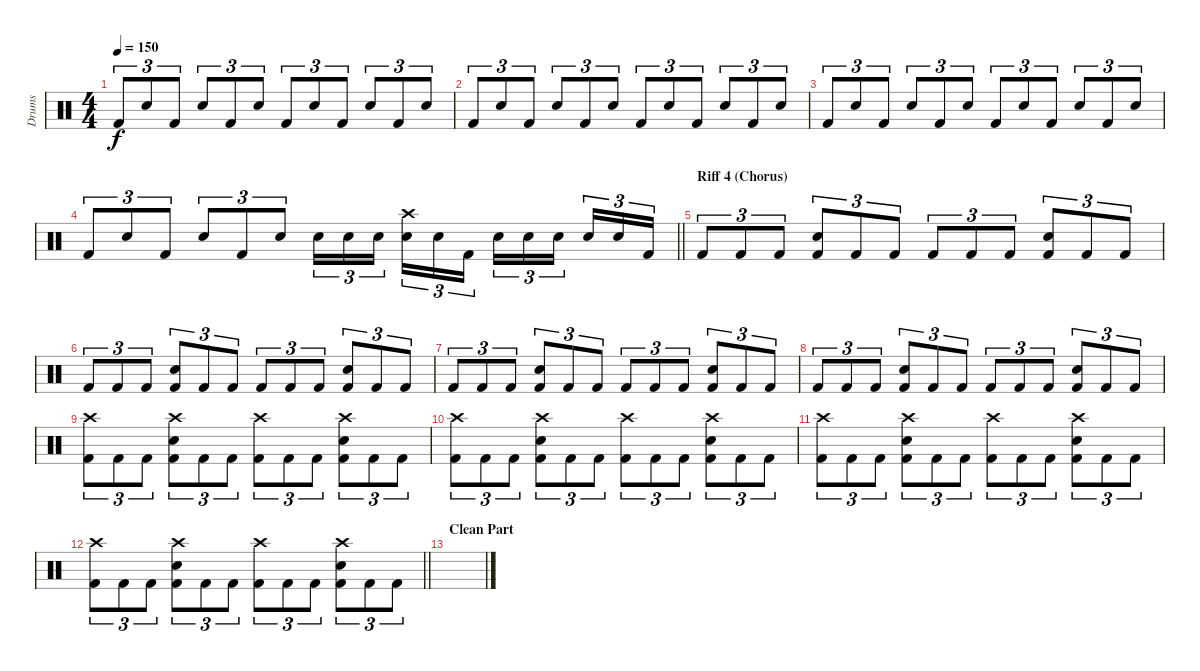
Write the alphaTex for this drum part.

\track ("Drums" "Drums") {instrument percussion}
\staff {score}
\articulation defaults
\ts (4 4)
\tempo 150
\clef neutral
\ks c "Kick (hit) 2".8{tu (3 2) dy f} "Snare (hit) 2".8{tu (3 2)} "Kick (hit) 2".8{tu (3 2)} "Snare (hit) 2".8{tu (3 2)} "Kick (hit) 2".8{tu (3 2)} "Snare (hit) 2".8{tu (3 2)} "Kick (hit) 2".8{tu (3 2)} "Snare (hit) 2".8{tu (3 2)} "Kick (hit) 2".8{tu (3 2)} "Snare (hit) 2".8{tu (3 2)} "Kick (hit) 2".8{tu (3 2)} "Snare (hit) 2".8{tu (3 2)}
|
"Kick (hit) 2".8{tu (3 2)} "Snare (hit) 2".8{tu (3 2)} "Kick (hit) 2".8{tu (3 2)} "Snare (hit) 2".8{tu (3 2)} "Kick (hit) 2".8{tu (3 2)} "Snare (hit) 2".8{tu (3 2)} "Kick (hit) 2".8{tu (3 2)} "Snare (hit) 2".8{tu (3 2)} "Kick (hit) 2".8{tu (3 2)} "Snare (hit) 2".8{tu (3 2)} "Kick (hit) 2".8{tu (3 2)} "Snare (hit) 2".8{tu (3 2)} |
"Kick (hit) 2".8{tu (3 2)} "Snare (hit) 2".8{tu (3 2)} "Kick (hit) 2".8{tu (3 2)} "Snare (hit) 2".8{tu (3 2)} "Kick (hit) 2".8{tu (3 2)} "Snare (hit) 2".8{tu (3 2)} "Kick (hit) 2".8{tu (3 2)} "Snare (hit) 2".8{tu (3 2)} "Kick (hit) 2".8{tu (3 2)} "Snare (hit) 2".8{tu (3 2)} "Kick (hit) 2".8{tu (3 2)} "Snare (hit) 2".8{tu (3 2)} |
\barLineRight lightlight "Kick (hit) 2".8{tu (3 2)} "Snare (hit) 2".8{tu (3 2)} "Kick (hit) 2".8{tu (3 2)} "Snare (hit) 2".8{tu (3 2)} "Kick (hit) 2".8{tu (3 2)} "Snare (hit) 2".8{tu (3 2)} "Snare (hit) 2".16{tu (3 2)} "Snare (hit) 2".16{tu (3 2)} "Snare (hit) 2".16{tu (3 2) beam splitsecondary}
("Crash high (hit)" "Snare (hit) 2").16{tu (3 2)} "Snare (hit) 2".16{tu (3 2)} "Kick (hit) 2".16{tu (3 2)} "Snare (hit) 2".16{tu (3 2)} "Snare (hit) 2".16{tu (3 2)} "Snare (hit) 2".16{tu (3 2) beam splitsecondary} "Snare (hit) 2".16{tu (3 2)} "Snare (hit) 2".16{tu (3 2)} "Kick (hit) 2".16{tu (3 2)} |
\section ("" "Riff 4 (Chorus)")
"Kick (hit) 2".8{tu (3 2)} "Kick (hit) 2".8{tu (3 2)} "Kick (hit) 2".8{tu (3 2)} ("Snare (hit) 2" "Kick (hit) 2").8{tu (3 2)} "Kick (hit) 2".8{tu (3 2)} "Kick (hit) 2".8{tu (3 2)} "Kick (hit) 2".8{tu (3 2)} "Kick (hit) 2".8{tu (3 2)} "Kick (hit) 2".8{tu (3 2)} ("Snare (hit) 2" "Kick (hit) 2").8{tu (3 2)} "Kick (hit) 2".8{tu (3 2)} "Kick (hit) 2".8{tu (3 2)} |
"Kick (hit) 2".8{tu (3 2)} "Kick (hit) 2".8{tu (3 2)} "Kick (hit) 2".8{tu (3 2)} ("Snare (hit) 2" "Kick (hit) 2").8{tu (3 2)} "Kick (hit) 2".8{tu (3 2)} "Kick (hit) 2".8{tu (3 2)} "Kick (hit) 2".8{tu (3 2)} "Kick (hit) 2".8{tu (3 2)} "Kick (hit) 2".8{tu (3 2)} ("Snare (hit) 2" "Kick (hit) 2").8{tu (3 2)} "Kick (hit) 2".8{tu (3 2)} "Kick (hit) 2".8{tu (3 2)} |
"Kick (hit) 2".8{tu (3 2)} "Kick (hit) 2".8{tu (3 2)} "Kick (hit) 2".8{tu (3 2)} ("Snare (hit) 2" "Kick (hit) 2").8{tu (3 2)} "Kick (hit) 2".8{tu (3 2)} "Kick (hit) 2".8{tu (3 2)} "Kick (hit) 2".8{tu (3 2)} "Kick (hit) 2".8{tu (3 2)} "Kick (hit) 2".8{tu (3 2)} ("Snare (hit) 2" "Kick (hit) 2").8{tu (3 2)} "Kick (hit) 2".8{tu (3 2)} "Kick (hit) 2".8{tu (3 2)} |
"Kick (hit) 2".8{tu (3 2)} "Kick (hit) 2".8{tu (3 2)} "Kick (hit) 2".8{tu (3 2)} ("Snare (hit) 2" "Kick (hit) 2").8{tu (3 2)} "Kick (hit) 2".8{tu (3 2)} "Kick (hit) 2".8{tu (3 2)} "Kick (hit) 2".8{tu (3 2)} "Kick (hit) 2".8{tu (3 2)} "Kick (hit) 2".8{tu (3 2)} ("Snare (hit) 2" "Kick (hit) 2").8{tu (3 2)} "Kick (hit) 2".8{tu (3 2)} "Kick (hit) 2".8{tu (3 2)} |
("Crash high (hit)" "Kick (hit) 2").8{tu (3 2)} "Kick (hit) 2".8{tu (3 2)} "Kick (hit) 2".8{tu (3 2)} ("Crash high (hit)" "Snare (hit) 2" "Kick (hit) 2").8{tu (3 2)} "Kick (hit) 2".8{tu (3 2)} "Kick (hit) 2".8{tu (3 2)} ("Crash high (hit)" "Kick (hit) 2").8{tu (3 2)} "Kick (hit) 2".8{tu (3 2)} "Kick (hit) 2".8{tu (3 2)} ("Crash high (hit)" "Snare (hit) 2" "Kick (hit) 2").8{tu (3 2)} "Kick (hit) 2".8{tu (3 2)} "Kick (hit) 2".8{tu (3 2)} |
("Crash high (hit)" "Kick (hit) 2").8{tu (3 2)} "Kick (hit) 2".8{tu (3 2)} "Kick (hit) 2".8{tu (3 2)} ("Crash high (hit)" "Snare (hit) 2" "Kick (hit) 2").8{tu (3 2)} "Kick (hit) 2".8{tu (3 2)} "Kick (hit) 2".8{tu (3 2)} ("Crash high (hit)" "Kick (hit) 2").8{tu (3 2)} "Kick (hit) 2".8{tu (3 2)} "Kick (hit) 2".8{tu (3 2)} ("Crash high (hit)" "Snare (hit) 2" "Kick (hit) 2").8{tu (3 2)} "Kick (hit) 2".8{tu (3 2)} "Kick (hit) 2".8{tu (3 2)} |
("Crash high (hit)" "Kick (hit) 2").8{tu (3 2)} "Kick (hit) 2".8{tu (3 2)} "Kick (hit) 2".8{tu (3 2)} ("Crash high (hit)" "Snare (hit) 2" "Kick (hit) 2").8{tu (3 2)} "Kick (hit) 2".8{tu (3 2)} "Kick (hit) 2".8{tu (3 2)} ("Crash high (hit)" "Kick (hit) 2").8{tu (3 2)} "Kick (hit) 2".8{tu (3 2)} "Kick (hit) 2".8{tu (3 2)} ("Crash high (hit)" "Snare (hit) 2" "Kick (hit) 2").8{tu (3 2)} "Kick (hit) 2".8{tu (3 2)} "Kick (hit) 2".8{tu (3 2)} |
\barLineRight lightlight
("Crash high (hit)" "Kick (hit) 2").8{tu (3 2)} "Kick (hit) 2".8{tu (3 2)} "Kick (hit) 2".8{tu (3 2)} ("Crash high (hit)" "Snare (hit) 2" "Kick (hit) 2").8{tu (3 2)} "Kick (hit) 2".8{tu (3 2)} "Kick (hit) 2".8{tu (3 2)} ("Crash high (hit)" "Kick (hit) 2").8{tu (3 2)} "Kick (hit) 2".8{tu (3 2)} "Kick (hit) 2".8{tu (3 2)} ("Crash high (hit)" "Snare (hit) 2" "Kick (hit) 2").8{tu (3 2)} "Kick (hit) 2".8{tu (3 2)} "Kick (hit) 2".8{tu (3 2)} |
\section ("" "Clean Part")
